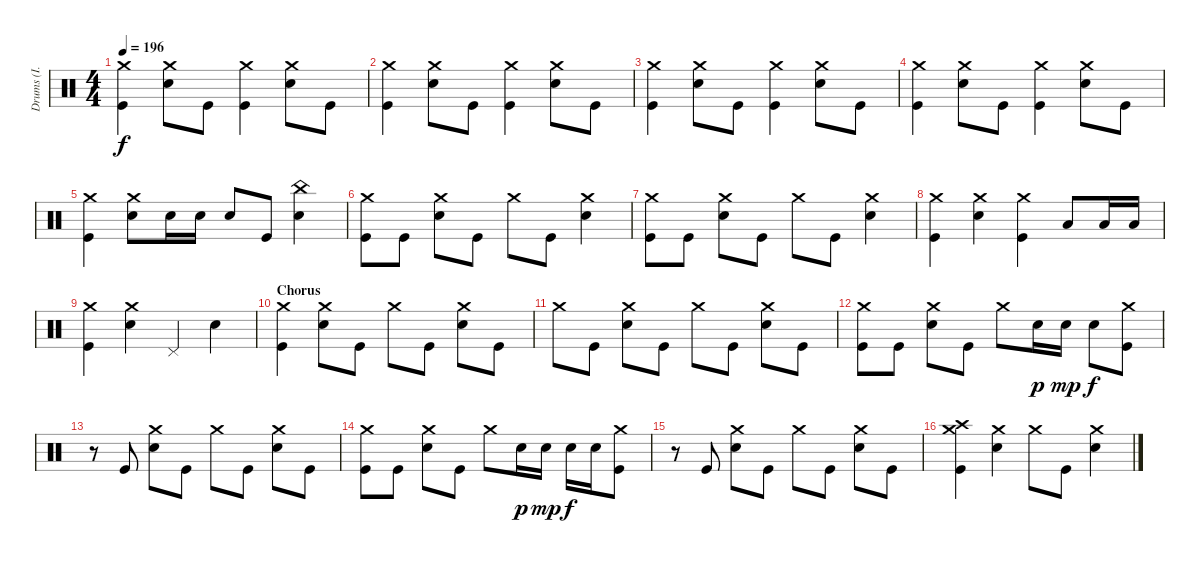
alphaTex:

\track ("Drums (I. Paice)" "Drums (I. ") {instrument percussion}
\staff {score}
\articulation defaults
\ts (4 4)
\tempo 196
\clef neutral
\ks c
("Crash medium (hit)" "Kick (hit)").4{dy f} ("Crash medium (hit)" "Electric Snare (hit)").8 "Kick (hit)".8 ("Crash medium (hit)" "Kick (hit)").4 ("Crash medium (hit)" "Electric Snare (hit)").8 "Kick (hit)".8 |
("Crash medium (hit)" "Kick (hit)").4 ("Crash medium (hit)" "Electric Snare (hit)").8 "Kick (hit)".8 ("Crash medium (hit)" "Kick (hit)").4 ("Crash medium (hit)" "Electric Snare (hit)").8 "Kick (hit)".8 |
("Crash medium (hit)" "Kick (hit)").4 ("Crash medium (hit)" "Electric Snare (hit)").8 "Kick (hit)".8 ("Crash medium (hit)" "Kick (hit)").4 ("Crash medium (hit)" "Electric Snare (hit)").8 "Kick (hit)".8 |
("Crash medium (hit)" "Kick (hit)").4 ("Crash medium (hit)" "Electric Snare (hit)").8 "Kick (hit)".8 ("Crash medium (hit)" "Kick (hit)").4 ("Crash medium (hit)" "Electric Snare (hit)").8 "Kick (hit)".8 |
("Crash medium (hit)" "Kick (hit)").4 ("Crash medium (hit)" "Electric Snare (hit)").8 "Electric Snare (hit)".16 "Electric Snare (hit)".16 "Electric Snare (hit)".8 "Kick (hit)".8 ("China (hit)" "Electric Snare (hit)").4 |
("Crash medium (hit)" "Kick (hit)").8 "Kick (hit)".8 ("Crash medium (hit)" "Electric Snare (hit)").8 "Kick (hit)".8 "Crash medium (hit)".8 "Kick (hit)".8 ("Crash medium (hit)" "Electric Snare (hit)").4 |
("Crash medium (hit)" "Kick (hit)").8 "Kick (hit)".8 ("Crash medium (hit)" "Electric Snare (hit)").8 "Kick (hit)".8 "Crash medium (hit)".8 "Kick (hit)".8 ("Crash medium (hit)" "Electric Snare (hit)").4 |
("Crash medium (hit)" "Kick (hit)").4 ("Crash medium (hit)" "Electric Snare (hit)").4 ("Crash medium (hit)" "Kick (hit)").4 "Low Tom (hit)".8 "Low Tom (hit)".16 "Low Tom (hit)".16 |
("Crash medium (hit)" "Kick (hit)").4 ("Crash medium (hit)" "Electric Snare (hit)").4 "Pedal Hi-Hat (hit)".4 "Electric Snare (hit)".4 |
\section ("" "Chorus")
("Crash medium (hit)" "Kick (hit)").4 ("Crash medium (hit)" "Electric Snare (hit)").8 "Kick (hit)".8 "Crash medium (hit)".8 "Kick (hit)".8 ("Crash medium (hit)" "Electric Snare (hit)").8 "Kick (hit)".8 |
"Crash medium (hit)".8 "Kick (hit)".8 ("Crash medium (hit)" "Electric Snare (hit)").8 "Kick (hit)".8 "Crash medium (hit)".8 "Kick (hit)".8 ("Crash medium (hit)" "Electric Snare (hit)").8 "Kick (hit)".8 |
("Crash medium (hit)" "Kick (hit)").8 "Kick (hit)".8 ("Crash medium (hit)" "Electric Snare (hit)").8 "Kick (hit)".8 "Crash medium (hit)".8 "Electric Snare (hit)".16{dy p} "Electric Snare (hit)".16{dy mp} "Electric Snare (hit)".8{dy f} ("Crash medium (hit)" "Kick (hit)").8 |
r.8 "Kick (hit)".8 ("Crash medium (hit)" "Electric Snare (hit)").8 "Kick (hit)".8 "Crash medium (hit)".8 "Kick (hit)".8 ("Crash medium (hit)" "Electric Snare (hit)").8 "Kick (hit)".8 |
("Crash medium (hit)" "Kick (hit)").8 "Kick (hit)".8 ("Crash medium (hit)" "Electric Snare (hit)").8 "Kick (hit)".8 "Crash medium (hit)".8 "Electric Snare (hit)".16{dy p} "Electric Snare (hit)".16{dy mp} "Electric Snare (hit)".16{dy f} "Electric Snare (hit)".16 ("Crash medium (hit)" "Kick (hit)").8 |
r.8 "Kick (hit)".8 ("Crash medium (hit)" "Electric Snare (hit)").8 "Kick (hit)".8 "Crash medium (hit)".8 "Kick (hit)".8 ("Crash medium (hit)" "Electric Snare (hit)").8 "Kick (hit)".8 |
("Crash medium (hit)" "Crash high (hit)" "Kick (hit)").4 ("Crash medium (hit)" "Electric Snare (hit)").4 "Crash medium (hit)".8 "Kick (hit)".8 ("Crash medium (hit)" "Electric Snare (hit)").4
